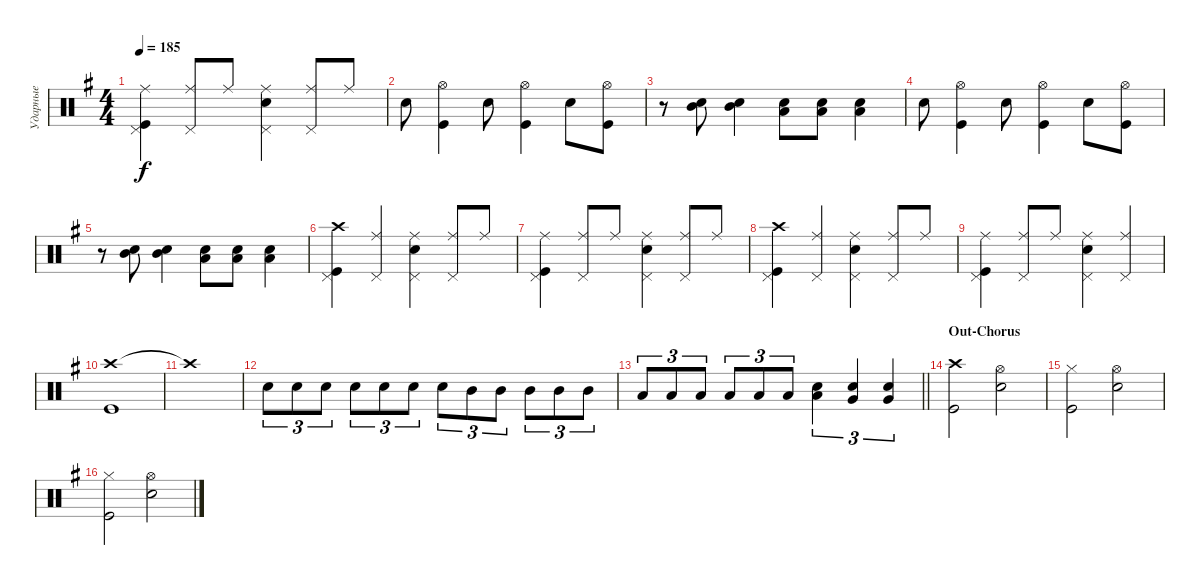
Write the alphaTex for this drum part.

\track ("Ударные" "Ударные") {instrument percussion}
\staff {score}
\articulation defaults
\ts (4 4)
\tempo 185
\clef neutral
\ks eminor
("Ride (middle)" "Pedal Hi-Hat (hit)" "Kick (hit)").4{dy f} ("Ride (middle)" "Pedal Hi-Hat (hit)").8 "Ride (middle)".8 ("Ride (middle)" "Pedal Hi-Hat (hit)" "Snare (hit) 2").4 ("Ride (middle)" "Pedal Hi-Hat (hit)").8 "Ride (middle)".8 |
"Snare (hit) 2".8 ("Kick (hit)" "Hi-Hat (open)").4 "Snare (hit) 2".8 ("Kick (hit)" "Hi-Hat (open)").4 "Snare (hit) 2".8 ("Kick (hit)" "Hi-Hat (open)").8 |
r.8 ("Snare (hit) 2" "Mid Tom (hit)").8 ("Snare (hit) 2" "Mid Tom (hit)").4 ("Snare (hit) 2" "Low Tom (hit)").8 ("Snare (hit) 2" "Low Tom (hit)").8 ("Snare (hit) 2" "Low Tom (hit)").4 |
"Snare (hit) 2".8 ("Kick (hit)" "Hi-Hat (open)").4 "Snare (hit) 2".8 ("Kick (hit)" "Hi-Hat (open)").4 "Snare (hit) 2".8 ("Kick (hit)" "Hi-Hat (open)").8 |
r.8 ("Snare (hit) 2" "Mid Tom (hit)").8 ("Snare (hit) 2" "Mid Tom (hit)").4 ("Snare (hit) 2" "Low Tom (hit)").8 ("Snare (hit) 2" "Low Tom (hit)").8 ("Snare (hit) 2" "Low Tom (hit)").4 |
("Kick (hit)" "Pedal Hi-Hat (hit)" "Crash high (hit)").4 ("Pedal Hi-Hat (hit)" "Ride (middle)").4 ("Pedal Hi-Hat (hit)" "Snare (hit) 2" "Ride (middle)").4 ("Ride (middle)" "Pedal Hi-Hat (hit)").8 "Ride (middle)".8 |
("Ride (middle)" "Pedal Hi-Hat (hit)" "Kick (hit)").4 ("Ride (middle)" "Pedal Hi-Hat (hit)").8 "Ride (middle)".8 ("Ride (middle)" "Pedal Hi-Hat (hit)" "Snare (hit) 2").4 ("Ride (middle)" "Pedal Hi-Hat (hit)").8 "Ride (middle)".8 |
("Kick (hit)" "Pedal Hi-Hat (hit)" "Crash high (hit)").4 ("Pedal Hi-Hat (hit)" "Ride (middle)").4 ("Pedal Hi-Hat (hit)" "Snare (hit) 2" "Ride (middle)").4 ("Ride (middle)" "Pedal Hi-Hat (hit)").8 "Ride (middle)".8 |
("Ride (middle)" "Pedal Hi-Hat (hit)" "Kick (hit)").4 ("Ride (middle)" "Pedal Hi-Hat (hit)").8 "Ride (middle)".8 ("Ride (middle)" "Pedal Hi-Hat (hit)" "Snare (hit) 2").4 ("Ride (middle)" "Pedal Hi-Hat (hit)").4 |
("Crash high (hit)" "Kick (hit)").1 |
"Crash high (hit)"{t}.1 |
"Snare (hit) 2".8{tu (3 2)} "Snare (hit) 2".8{tu (3 2)} "Snare (hit) 2".8{tu (3 2)} "Snare (hit) 2".8{tu (3 2)} "Snare (hit) 2".8{tu (3 2)} "Snare (hit) 2".8{tu (3 2)} "Snare (hit) 2".8{tu (3 2)} "Mid Tom (hit)".8{tu (3 2)} "Mid Tom (hit)".8{tu (3 2)} "Mid Tom (hit)".8{tu (3 2)} "Mid Tom (hit)".8{tu (3 2)} "Mid Tom (hit)".8{tu (3 2)} |
\barLineRight lightlight "Low Tom (hit)".8{tu (3 2)} "Low Tom (hit)".8{tu (3 2)} "Low Tom (hit)".8{tu (3 2)} "Low Tom (hit)".8{tu (3 2)} "Low Tom (hit)".8{tu (3 2)} "Low Tom (hit)".8{tu (3 2)}
("Snare (hit) 2" "Low Tom (hit)").4{tu (3 2)} ("Snare (hit) 2" "Very Low Tom (hit)").4{tu (3 2)} ("Snare (hit) 2" "Very Low Tom (hit)").4{tu (3 2)} |
\section ("" "Out-Chorus")
("Kick (hit)" "Crash high (hit)").2 ("Snare (hit) 2" "Hi-Hat (open)").2 |
("Kick (hit)" "Hi-Hat (closed)").2 ("Snare (hit) 2" "Hi-Hat (open)").2 |
("Kick (hit)" "Hi-Hat (closed)").2 ("Snare (hit) 2" "Hi-Hat (open)").2
